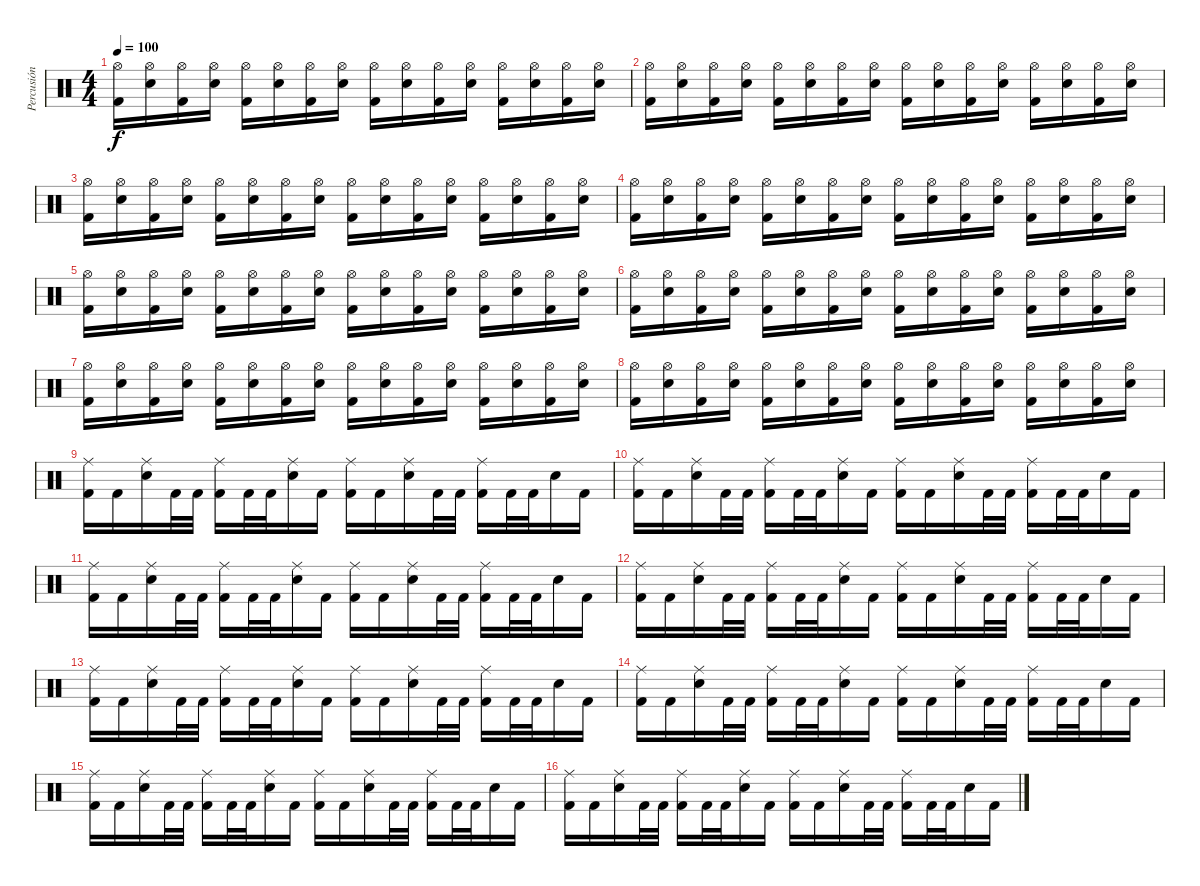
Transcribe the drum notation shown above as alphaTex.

\track ("Percusión" "Percusión") {instrument percussion}
\staff {score}
\articulation defaults
\ts (4 4)
\tempo 100
\clef neutral
\ks c
("Hi-Hat (open)" "Kick (hit) 2").16{dy f} ("Hi-Hat (open)" "Snare (hit) 2").16 ("Hi-Hat (open)" "Kick (hit) 2").16 ("Hi-Hat (open)" "Snare (hit) 2").16 ("Hi-Hat (open)" "Kick (hit) 2").16 ("Hi-Hat (open)" "Snare (hit) 2").16 ("Hi-Hat (open)" "Kick (hit) 2").16 ("Hi-Hat (open)" "Snare (hit) 2").16 ("Hi-Hat (open)" "Kick (hit) 2").16 ("Hi-Hat (open)" "Snare (hit) 2").16 ("Hi-Hat (open)" "Kick (hit) 2").16 ("Hi-Hat (open)" "Snare (hit) 2").16 ("Hi-Hat (open)" "Kick (hit) 2").16 ("Hi-Hat (open)" "Snare (hit) 2").16 ("Hi-Hat (open)" "Kick (hit) 2").16 ("Hi-Hat (open)" "Snare (hit) 2").16 |
("Hi-Hat (open)" "Kick (hit) 2").16 ("Hi-Hat (open)" "Snare (hit) 2").16 ("Hi-Hat (open)" "Kick (hit) 2").16 ("Hi-Hat (open)" "Snare (hit) 2").16 ("Hi-Hat (open)" "Kick (hit) 2").16 ("Hi-Hat (open)" "Snare (hit) 2").16 ("Hi-Hat (open)" "Kick (hit) 2").16 ("Hi-Hat (open)" "Snare (hit) 2").16 ("Hi-Hat (open)" "Kick (hit) 2").16 ("Hi-Hat (open)" "Snare (hit) 2").16 ("Hi-Hat (open)" "Kick (hit) 2").16 ("Hi-Hat (open)" "Snare (hit) 2").16 ("Hi-Hat (open)" "Kick (hit) 2").16 ("Hi-Hat (open)" "Snare (hit) 2").16 ("Hi-Hat (open)" "Kick (hit) 2").16 ("Hi-Hat (open)" "Snare (hit) 2").16 |
("Hi-Hat (open)" "Kick (hit) 2").16 ("Hi-Hat (open)" "Snare (hit) 2").16 ("Hi-Hat (open)" "Kick (hit) 2").16 ("Hi-Hat (open)" "Snare (hit) 2").16 ("Hi-Hat (open)" "Kick (hit) 2").16 ("Hi-Hat (open)" "Snare (hit) 2").16 ("Hi-Hat (open)" "Kick (hit) 2").16 ("Hi-Hat (open)" "Snare (hit) 2").16 ("Hi-Hat (open)" "Kick (hit) 2").16 ("Hi-Hat (open)" "Snare (hit) 2").16 ("Hi-Hat (open)" "Kick (hit) 2").16 ("Hi-Hat (open)" "Snare (hit) 2").16 ("Hi-Hat (open)" "Kick (hit) 2").16 ("Hi-Hat (open)" "Snare (hit) 2").16 ("Hi-Hat (open)" "Kick (hit) 2").16 ("Hi-Hat (open)" "Snare (hit) 2").16 |
("Hi-Hat (open)" "Kick (hit) 2").16 ("Hi-Hat (open)" "Snare (hit) 2").16 ("Hi-Hat (open)" "Kick (hit) 2").16 ("Hi-Hat (open)" "Snare (hit) 2").16 ("Hi-Hat (open)" "Kick (hit) 2").16 ("Hi-Hat (open)" "Snare (hit) 2").16 ("Hi-Hat (open)" "Kick (hit) 2").16 ("Hi-Hat (open)" "Snare (hit) 2").16 ("Hi-Hat (open)" "Kick (hit) 2").16 ("Hi-Hat (open)" "Snare (hit) 2").16 ("Hi-Hat (open)" "Kick (hit) 2").16 ("Hi-Hat (open)" "Snare (hit) 2").16 ("Hi-Hat (open)" "Kick (hit) 2").16 ("Hi-Hat (open)" "Snare (hit) 2").16 ("Hi-Hat (open)" "Kick (hit) 2").16 ("Hi-Hat (open)" "Snare (hit) 2").16 |
("Hi-Hat (open)" "Kick (hit) 2").16 ("Hi-Hat (open)" "Snare (hit) 2").16 ("Hi-Hat (open)" "Kick (hit) 2").16 ("Hi-Hat (open)" "Snare (hit) 2").16 ("Hi-Hat (open)" "Kick (hit) 2").16 ("Hi-Hat (open)" "Snare (hit) 2").16 ("Hi-Hat (open)" "Kick (hit) 2").16 ("Hi-Hat (open)" "Snare (hit) 2").16 ("Hi-Hat (open)" "Kick (hit) 2").16 ("Hi-Hat (open)" "Snare (hit) 2").16 ("Hi-Hat (open)" "Kick (hit) 2").16 ("Hi-Hat (open)" "Snare (hit) 2").16 ("Hi-Hat (open)" "Kick (hit) 2").16 ("Hi-Hat (open)" "Snare (hit) 2").16 ("Hi-Hat (open)" "Kick (hit) 2").16 ("Hi-Hat (open)" "Snare (hit) 2").16 |
("Hi-Hat (open)" "Kick (hit) 2").16 ("Hi-Hat (open)" "Snare (hit) 2").16 ("Hi-Hat (open)" "Kick (hit) 2").16 ("Hi-Hat (open)" "Snare (hit) 2").16 ("Hi-Hat (open)" "Kick (hit) 2").16 ("Hi-Hat (open)" "Snare (hit) 2").16 ("Hi-Hat (open)" "Kick (hit) 2").16 ("Hi-Hat (open)" "Snare (hit) 2").16 ("Hi-Hat (open)" "Kick (hit) 2").16 ("Hi-Hat (open)" "Snare (hit) 2").16 ("Hi-Hat (open)" "Kick (hit) 2").16 ("Hi-Hat (open)" "Snare (hit) 2").16 ("Hi-Hat (open)" "Kick (hit) 2").16 ("Hi-Hat (open)" "Snare (hit) 2").16 ("Hi-Hat (open)" "Kick (hit) 2").16 ("Hi-Hat (open)" "Snare (hit) 2").16 |
("Hi-Hat (open)" "Kick (hit) 2").16 ("Hi-Hat (open)" "Snare (hit) 2").16 ("Hi-Hat (open)" "Kick (hit) 2").16 ("Hi-Hat (open)" "Snare (hit) 2").16 ("Hi-Hat (open)" "Kick (hit) 2").16 ("Hi-Hat (open)" "Snare (hit) 2").16 ("Hi-Hat (open)" "Kick (hit) 2").16 ("Hi-Hat (open)" "Snare (hit) 2").16 ("Hi-Hat (open)" "Kick (hit) 2").16 ("Hi-Hat (open)" "Snare (hit) 2").16 ("Hi-Hat (open)" "Kick (hit) 2").16 ("Hi-Hat (open)" "Snare (hit) 2").16 ("Hi-Hat (open)" "Kick (hit) 2").16 ("Hi-Hat (open)" "Snare (hit) 2").16 ("Hi-Hat (open)" "Kick (hit) 2").16 ("Hi-Hat (open)" "Snare (hit) 2").16 |
("Hi-Hat (open)" "Kick (hit) 2").16 ("Hi-Hat (open)" "Snare (hit) 2").16 ("Hi-Hat (open)" "Kick (hit) 2").16 ("Hi-Hat (open)" "Snare (hit) 2").16 ("Hi-Hat (open)" "Kick (hit) 2").16 ("Hi-Hat (open)" "Snare (hit) 2").16 ("Hi-Hat (open)" "Kick (hit) 2").16 ("Hi-Hat (open)" "Snare (hit) 2").16 ("Hi-Hat (open)" "Kick (hit) 2").16 ("Hi-Hat (open)" "Snare (hit) 2").16 ("Hi-Hat (open)" "Kick (hit) 2").16 ("Hi-Hat (open)" "Snare (hit) 2").16 ("Hi-Hat (open)" "Kick (hit) 2").16 ("Hi-Hat (open)" "Snare (hit) 2").16 ("Hi-Hat (open)" "Kick (hit) 2").16 ("Hi-Hat (open)" "Snare (hit) 2").16 |
("Ride (middle)" "Kick (hit) 2").16 "Kick (hit) 2".16 ("Ride (middle)" "Snare (hit) 2").16 "Kick (hit) 2".32 "Kick (hit) 2".32 ("Ride (middle)" "Kick (hit) 2").16 "Kick (hit) 2".32 "Kick (hit) 2".32 ("Ride (middle)" "Snare (hit) 2").16 "Kick (hit) 2".16 ("Ride (middle)" "Kick (hit) 2").16 "Kick (hit) 2".16 ("Ride (middle)" "Snare (hit) 2").16 "Kick (hit) 2".32 "Kick (hit) 2".32 ("Ride (middle)" "Kick (hit) 2").16 "Kick (hit) 2".32 "Kick (hit) 2".32 "Snare (hit) 2".16 "Kick (hit) 2".16 |
("Ride (middle)" "Kick (hit) 2").16 "Kick (hit) 2".16 ("Ride (middle)" "Snare (hit) 2").16 "Kick (hit) 2".32 "Kick (hit) 2".32 ("Ride (middle)" "Kick (hit) 2").16 "Kick (hit) 2".32 "Kick (hit) 2".32 ("Ride (middle)" "Snare (hit) 2").16 "Kick (hit) 2".16 ("Ride (middle)" "Kick (hit) 2").16 "Kick (hit) 2".16 ("Ride (middle)" "Snare (hit) 2").16 "Kick (hit) 2".32 "Kick (hit) 2".32 ("Ride (middle)" "Kick (hit) 2").16 "Kick (hit) 2".32 "Kick (hit) 2".32 "Snare (hit) 2".16 "Kick (hit) 2".16 |
("Ride (middle)" "Kick (hit) 2").16 "Kick (hit) 2".16 ("Ride (middle)" "Snare (hit) 2").16 "Kick (hit) 2".32 "Kick (hit) 2".32 ("Ride (middle)" "Kick (hit) 2").16 "Kick (hit) 2".32 "Kick (hit) 2".32 ("Ride (middle)" "Snare (hit) 2").16 "Kick (hit) 2".16 ("Ride (middle)" "Kick (hit) 2").16 "Kick (hit) 2".16 ("Ride (middle)" "Snare (hit) 2").16 "Kick (hit) 2".32 "Kick (hit) 2".32 ("Ride (middle)" "Kick (hit) 2").16 "Kick (hit) 2".32 "Kick (hit) 2".32 "Snare (hit) 2".16 "Kick (hit) 2".16 |
("Ride (middle)" "Kick (hit) 2").16 "Kick (hit) 2".16 ("Ride (middle)" "Snare (hit) 2").16 "Kick (hit) 2".32 "Kick (hit) 2".32 ("Ride (middle)" "Kick (hit) 2").16 "Kick (hit) 2".32 "Kick (hit) 2".32 ("Ride (middle)" "Snare (hit) 2").16 "Kick (hit) 2".16 ("Ride (middle)" "Kick (hit) 2").16 "Kick (hit) 2".16 ("Ride (middle)" "Snare (hit) 2").16 "Kick (hit) 2".32 "Kick (hit) 2".32 ("Ride (middle)" "Kick (hit) 2").16 "Kick (hit) 2".32 "Kick (hit) 2".32 "Snare (hit) 2".16 "Kick (hit) 2".16 |
("Ride (middle)" "Kick (hit) 2").16 "Kick (hit) 2".16 ("Ride (middle)" "Snare (hit) 2").16 "Kick (hit) 2".32 "Kick (hit) 2".32 ("Ride (middle)" "Kick (hit) 2").16 "Kick (hit) 2".32 "Kick (hit) 2".32 ("Ride (middle)" "Snare (hit) 2").16 "Kick (hit) 2".16 ("Ride (middle)" "Kick (hit) 2").16 "Kick (hit) 2".16 ("Ride (middle)" "Snare (hit) 2").16 "Kick (hit) 2".32 "Kick (hit) 2".32 ("Ride (middle)" "Kick (hit) 2").16 "Kick (hit) 2".32 "Kick (hit) 2".32 "Snare (hit) 2".16 "Kick (hit) 2".16 |
("Ride (middle)" "Kick (hit) 2").16 "Kick (hit) 2".16 ("Ride (middle)" "Snare (hit) 2").16 "Kick (hit) 2".32 "Kick (hit) 2".32 ("Ride (middle)" "Kick (hit) 2").16 "Kick (hit) 2".32 "Kick (hit) 2".32 ("Ride (middle)" "Snare (hit) 2").16 "Kick (hit) 2".16 ("Ride (middle)" "Kick (hit) 2").16 "Kick (hit) 2".16 ("Ride (middle)" "Snare (hit) 2").16 "Kick (hit) 2".32 "Kick (hit) 2".32 ("Ride (middle)" "Kick (hit) 2").16 "Kick (hit) 2".32 "Kick (hit) 2".32 "Snare (hit) 2".16 "Kick (hit) 2".16 |
("Ride (middle)" "Kick (hit) 2").16 "Kick (hit) 2".16 ("Ride (middle)" "Snare (hit) 2").16 "Kick (hit) 2".32 "Kick (hit) 2".32 ("Ride (middle)" "Kick (hit) 2").16 "Kick (hit) 2".32 "Kick (hit) 2".32 ("Ride (middle)" "Snare (hit) 2").16 "Kick (hit) 2".16 ("Ride (middle)" "Kick (hit) 2").16 "Kick (hit) 2".16 ("Ride (middle)" "Snare (hit) 2").16 "Kick (hit) 2".32 "Kick (hit) 2".32 ("Ride (middle)" "Kick (hit) 2").16 "Kick (hit) 2".32 "Kick (hit) 2".32 "Snare (hit) 2".16 "Kick (hit) 2".16 |
("Ride (middle)" "Kick (hit) 2").16 "Kick (hit) 2".16 ("Ride (middle)" "Snare (hit) 2").16 "Kick (hit) 2".32 "Kick (hit) 2".32 ("Ride (middle)" "Kick (hit) 2").16 "Kick (hit) 2".32 "Kick (hit) 2".32 ("Ride (middle)" "Snare (hit) 2").16 "Kick (hit) 2".16 ("Ride (middle)" "Kick (hit) 2").16 "Kick (hit) 2".16 ("Ride (middle)" "Snare (hit) 2").16 "Kick (hit) 2".32 "Kick (hit) 2".32 ("Ride (middle)" "Kick (hit) 2").16 "Kick (hit) 2".32 "Kick (hit) 2".32 "Snare (hit) 2".16 "Kick (hit) 2".16
